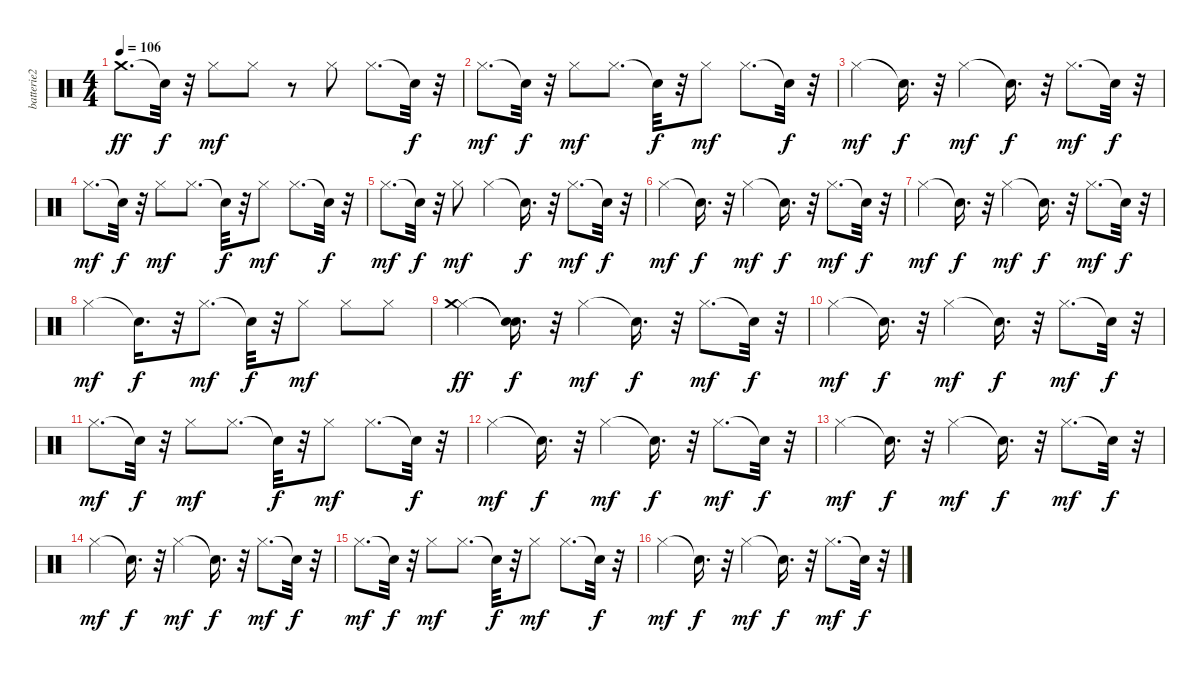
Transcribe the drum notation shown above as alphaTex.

\track ("batterie2" "batterie2") {instrument percussion}
\staff {score}
\articulation defaults
\ts (4 4)
\tempo 106
\clef neutral
\ks c "Crash medium (hit)".8{d dy ff} "Snare (hit)"{t}.32{dy f}
r.32 "Hi-Hat (closed)".8{dy mf} "Hi-Hat (closed)".8 r.8 "Hi-Hat (closed)".8 "Hi-Hat (closed)".8{d} "Snare (hit)"{t}.32{dy f} r.32 |
"Hi-Hat (closed)".8{d dy mf} "Snare (hit)"{t}.32{dy f} r.32 "Hi-Hat (closed)".8{dy mf} "Hi-Hat (closed)".8{d} "Snare (hit)"{t}.32{dy f} r.32 "Hi-Hat (closed)".8{dy mf} "Hi-Hat (closed)".8{d} "Snare (hit)"{t}.32{dy f} r.32 |
"Hi-Hat (closed)".4{dy mf} "Snare (hit)"{t}.16{d dy f} r.32 "Hi-Hat (closed)".4{dy mf} "Snare (hit)"{t}.16{d dy f} r.32 "Hi-Hat (closed)".8{d dy mf} "Snare (hit)"{t}.32{dy f} r.32 |
"Hi-Hat (closed)".8{d dy mf} "Snare (hit)"{t}.32{dy f} r.32 "Hi-Hat (closed)".8{dy mf} "Hi-Hat (closed)".8{d} "Snare (hit)"{t}.32{dy f} r.32 "Hi-Hat (closed)".8{dy mf} "Hi-Hat (closed)".8{d} "Snare (hit)"{t}.32{dy f} r.32 |
"Hi-Hat (closed)".8{d dy mf} "Snare (hit)"{t}.32{dy f} r.32 "Hi-Hat (closed)".8{dy mf} "Hi-Hat (closed)".4 "Snare (hit)"{t}.16{d dy f} r.32 "Hi-Hat (closed)".8{d dy mf} "Snare (hit)"{t}.32{dy f} r.32 |
"Hi-Hat (closed)".4{dy mf} "Snare (hit)"{t}.16{d dy f} r.32 "Hi-Hat (closed)".4{dy mf} "Snare (hit)"{t}.16{d dy f} r.32 "Hi-Hat (closed)".8{d dy mf} "Snare (hit)"{t}.32{dy f} r.32 |
"Hi-Hat (closed)".4{dy mf} "Snare (hit)"{t}.16{d dy f} r.32 "Hi-Hat (closed)".4{dy mf} "Snare (hit)"{t}.16{d dy f} r.32 "Hi-Hat (closed)".8{d dy mf} "Snare (hit)"{t}.32{dy f} r.32 |
"Hi-Hat (closed)".4{dy mf} "Snare (hit)"{t}.16{d dy f} r.32 "Hi-Hat (closed)".8{d dy mf} "Snare (hit)"{t}.32{dy f} r.32 "Hi-Hat (closed)".8{dy mf} "Hi-Hat (closed)".8 "Hi-Hat (closed)".8 |
("Hi-Hat (closed)" "Crash medium (hit)").4{dy ff} ("Snare (hit)"{t} "Snare (hit)"{t}).16{d dy f} r.32 "Hi-Hat (closed)".4{dy mf} "Snare (hit)"{t}.16{d dy f} r.32 "Hi-Hat (closed)".8{d dy mf} "Snare (hit)"{t}.32{dy f} r.32 |
"Hi-Hat (closed)".4{dy mf} "Snare (hit)"{t}.16{d dy f} r.32 "Hi-Hat (closed)".4{dy mf} "Snare (hit)"{t}.16{d dy f} r.32 "Hi-Hat (closed)".8{d dy mf} "Snare (hit)"{t}.32{dy f} r.32 |
"Hi-Hat (closed)".8{d dy mf} "Snare (hit)"{t}.32{dy f} r.32 "Hi-Hat (closed)".8{dy mf} "Hi-Hat (closed)".8{d} "Snare (hit)"{t}.32{dy f} r.32 "Hi-Hat (closed)".8{dy mf} "Hi-Hat (closed)".8{d} "Snare (hit)"{t}.32{dy f} r.32 |
"Hi-Hat (closed)".4{dy mf} "Snare (hit)"{t}.16{d dy f} r.32 "Hi-Hat (closed)".4{dy mf} "Snare (hit)"{t}.16{d dy f} r.32 "Hi-Hat (closed)".8{d dy mf} "Snare (hit)"{t}.32{dy f} r.32 |
"Hi-Hat (closed)".4{dy mf} "Snare (hit)"{t}.16{d dy f} r.32 "Hi-Hat (closed)".4{dy mf} "Snare (hit)"{t}.16{d dy f} r.32 "Hi-Hat (closed)".8{d dy mf} "Snare (hit)"{t}.32{dy f} r.32 |
"Hi-Hat (closed)".4{dy mf} "Snare (hit)"{t}.16{d dy f} r.32 "Hi-Hat (closed)".4{dy mf} "Snare (hit)"{t}.16{d dy f} r.32 "Hi-Hat (closed)".8{d dy mf} "Snare (hit)"{t}.32{dy f} r.32 |
"Hi-Hat (closed)".8{d dy mf} "Snare (hit)"{t}.32{dy f} r.32 "Hi-Hat (closed)".8{dy mf} "Hi-Hat (closed)".8{d} "Snare (hit)"{t}.32{dy f} r.32 "Hi-Hat (closed)".8{dy mf} "Hi-Hat (closed)".8{d} "Snare (hit)"{t}.32{dy f} r.32 |
"Hi-Hat (closed)".4{dy mf} "Snare (hit)"{t}.16{d dy f} r.32 "Hi-Hat (closed)".4{dy mf} "Snare (hit)"{t}.16{d dy f} r.32 "Hi-Hat (closed)".8{d dy mf} "Snare (hit)"{t}.32{dy f} r.32
